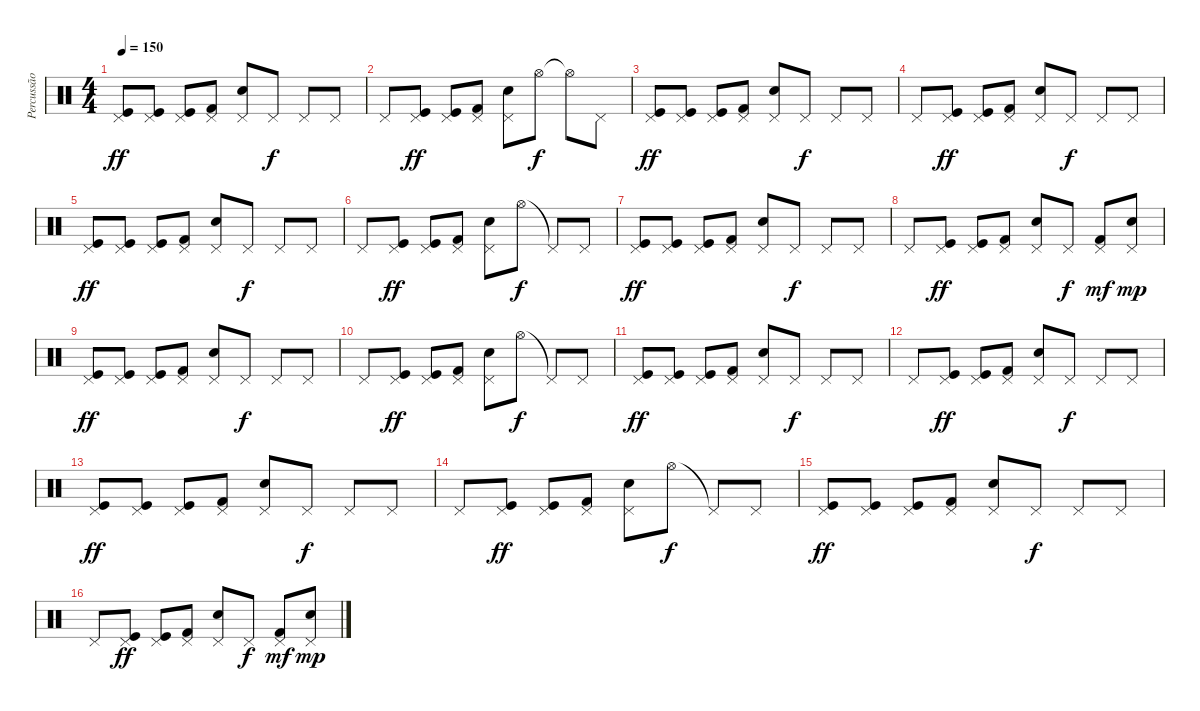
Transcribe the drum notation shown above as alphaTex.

\track ("Percussão" "Percussão") {instrument percussion}
\staff {score}
\articulation defaults
\ts (4 4)
\tempo 150
\clef neutral
\ks c
("Kick (hit)" "Pedal Hi-Hat (hit)").8{dy ff} ("Kick (hit)" "Pedal Hi-Hat (hit)").8 ("Kick (hit)" "Pedal Hi-Hat (hit)").8 ("Kick (hit) 2" "Pedal Hi-Hat (hit)").8 ("Electric Snare (hit)" "Pedal Hi-Hat (hit)").8 "Pedal Hi-Hat (hit)".8{dy f} "Pedal Hi-Hat (hit)".8 "Pedal Hi-Hat (hit)".8 |
"Pedal Hi-Hat (hit)".8 ("Kick (hit)" "Pedal Hi-Hat (hit)").8{dy ff} ("Kick (hit)" "Pedal Hi-Hat (hit)").8 ("Kick (hit) 2" "Pedal Hi-Hat (hit)").8 ("Electric Snare (hit)" "Pedal Hi-Hat (hit)").8 "Hi-Hat (open)".8{dy f} "Hi-Hat (open)"{t}.8 "Pedal Hi-Hat (hit)".8 |
("Kick (hit)" "Pedal Hi-Hat (hit)").8{dy ff} ("Kick (hit)" "Pedal Hi-Hat (hit)").8 ("Kick (hit)" "Pedal Hi-Hat (hit)").8 ("Kick (hit) 2" "Pedal Hi-Hat (hit)").8 ("Electric Snare (hit)" "Pedal Hi-Hat (hit)").8 "Pedal Hi-Hat (hit)".8{dy f} "Pedal Hi-Hat (hit)".8 "Pedal Hi-Hat (hit)".8 |
"Pedal Hi-Hat (hit)".8 ("Kick (hit)" "Pedal Hi-Hat (hit)").8{dy ff} ("Kick (hit)" "Pedal Hi-Hat (hit)").8 ("Kick (hit) 2" "Pedal Hi-Hat (hit)").8 ("Electric Snare (hit)" "Pedal Hi-Hat (hit)").8 "Pedal Hi-Hat (hit)".8{dy f} "Pedal Hi-Hat (hit)".8 "Pedal Hi-Hat (hit)".8 |
("Kick (hit)" "Pedal Hi-Hat (hit)").8{dy ff} ("Kick (hit)" "Pedal Hi-Hat (hit)").8 ("Kick (hit)" "Pedal Hi-Hat (hit)").8 ("Kick (hit) 2" "Pedal Hi-Hat (hit)").8 ("Electric Snare (hit)" "Pedal Hi-Hat (hit)").8 "Pedal Hi-Hat (hit)".8{dy f} "Pedal Hi-Hat (hit)".8 "Pedal Hi-Hat (hit)".8 |
"Pedal Hi-Hat (hit)".8 ("Kick (hit)" "Pedal Hi-Hat (hit)").8{dy ff} ("Kick (hit)" "Pedal Hi-Hat (hit)").8 ("Kick (hit) 2" "Pedal Hi-Hat (hit)").8 ("Electric Snare (hit)" "Pedal Hi-Hat (hit)").8 "Hi-Hat (open)".8{dy f} "Pedal Hi-Hat (hit)"{t}.8 "Pedal Hi-Hat (hit)".8 |
("Kick (hit)" "Pedal Hi-Hat (hit)").8{dy ff} ("Kick (hit)" "Pedal Hi-Hat (hit)").8 ("Kick (hit)" "Pedal Hi-Hat (hit)").8 ("Kick (hit) 2" "Pedal Hi-Hat (hit)").8 ("Electric Snare (hit)" "Pedal Hi-Hat (hit)").8 "Pedal Hi-Hat (hit)".8{dy f} "Pedal Hi-Hat (hit)".8 "Pedal Hi-Hat (hit)".8 |
"Pedal Hi-Hat (hit)".8 ("Kick (hit)" "Pedal Hi-Hat (hit)").8{dy ff} ("Kick (hit)" "Pedal Hi-Hat (hit)").8 ("Kick (hit) 2" "Pedal Hi-Hat (hit)").8 ("Electric Snare (hit)" "Pedal Hi-Hat (hit)").8 "Pedal Hi-Hat (hit)".8{dy f} ("Kick (hit) 2" "Pedal Hi-Hat (hit)").8{dy mf} ("Electric Snare (hit)" "Pedal Hi-Hat (hit)").8{dy mp} |
("Kick (hit)" "Pedal Hi-Hat (hit)").8{dy ff} ("Kick (hit)" "Pedal Hi-Hat (hit)").8 ("Kick (hit)" "Pedal Hi-Hat (hit)").8 ("Kick (hit) 2" "Pedal Hi-Hat (hit)").8 ("Electric Snare (hit)" "Pedal Hi-Hat (hit)").8 "Pedal Hi-Hat (hit)".8{dy f} "Pedal Hi-Hat (hit)".8 "Pedal Hi-Hat (hit)".8 |
"Pedal Hi-Hat (hit)".8 ("Kick (hit)" "Pedal Hi-Hat (hit)").8{dy ff} ("Kick (hit)" "Pedal Hi-Hat (hit)").8 ("Kick (hit) 2" "Pedal Hi-Hat (hit)").8 ("Electric Snare (hit)" "Pedal Hi-Hat (hit)").8 "Hi-Hat (open)".8{dy f} "Pedal Hi-Hat (hit)"{t}.8 "Pedal Hi-Hat (hit)".8 |
("Kick (hit)" "Pedal Hi-Hat (hit)").8{dy ff} ("Kick (hit)" "Pedal Hi-Hat (hit)").8 ("Kick (hit)" "Pedal Hi-Hat (hit)").8 ("Kick (hit) 2" "Pedal Hi-Hat (hit)").8 ("Electric Snare (hit)" "Pedal Hi-Hat (hit)").8 "Pedal Hi-Hat (hit)".8{dy f} "Pedal Hi-Hat (hit)".8 "Pedal Hi-Hat (hit)".8 |
"Pedal Hi-Hat (hit)".8 ("Kick (hit)" "Pedal Hi-Hat (hit)").8{dy ff} ("Kick (hit)" "Pedal Hi-Hat (hit)").8 ("Kick (hit) 2" "Pedal Hi-Hat (hit)").8 ("Electric Snare (hit)" "Pedal Hi-Hat (hit)").8 "Pedal Hi-Hat (hit)".8{dy f} "Pedal Hi-Hat (hit)".8 "Pedal Hi-Hat (hit)".8 |
("Kick (hit)" "Pedal Hi-Hat (hit)").8{dy ff} ("Kick (hit)" "Pedal Hi-Hat (hit)").8 ("Kick (hit)" "Pedal Hi-Hat (hit)").8 ("Kick (hit) 2" "Pedal Hi-Hat (hit)").8 ("Electric Snare (hit)" "Pedal Hi-Hat (hit)").8 "Pedal Hi-Hat (hit)".8{dy f} "Pedal Hi-Hat (hit)".8 "Pedal Hi-Hat (hit)".8 |
"Pedal Hi-Hat (hit)".8 ("Kick (hit)" "Pedal Hi-Hat (hit)").8{dy ff} ("Kick (hit)" "Pedal Hi-Hat (hit)").8 ("Kick (hit) 2" "Pedal Hi-Hat (hit)").8 ("Electric Snare (hit)" "Pedal Hi-Hat (hit)").8 "Hi-Hat (open)".8{dy f} "Pedal Hi-Hat (hit)"{t}.8 "Pedal Hi-Hat (hit)".8 |
("Kick (hit)" "Pedal Hi-Hat (hit)").8{dy ff} ("Kick (hit)" "Pedal Hi-Hat (hit)").8 ("Kick (hit)" "Pedal Hi-Hat (hit)").8 ("Kick (hit) 2" "Pedal Hi-Hat (hit)").8 ("Electric Snare (hit)" "Pedal Hi-Hat (hit)").8 "Pedal Hi-Hat (hit)".8{dy f} "Pedal Hi-Hat (hit)".8 "Pedal Hi-Hat (hit)".8 |
"Pedal Hi-Hat (hit)".8 ("Kick (hit)" "Pedal Hi-Hat (hit)").8{dy ff} ("Kick (hit)" "Pedal Hi-Hat (hit)").8 ("Kick (hit) 2" "Pedal Hi-Hat (hit)").8 ("Electric Snare (hit)" "Pedal Hi-Hat (hit)").8 "Pedal Hi-Hat (hit)".8{dy f} ("Kick (hit) 2" "Pedal Hi-Hat (hit)").8{dy mf} ("Electric Snare (hit)" "Pedal Hi-Hat (hit)").8{dy mp}
